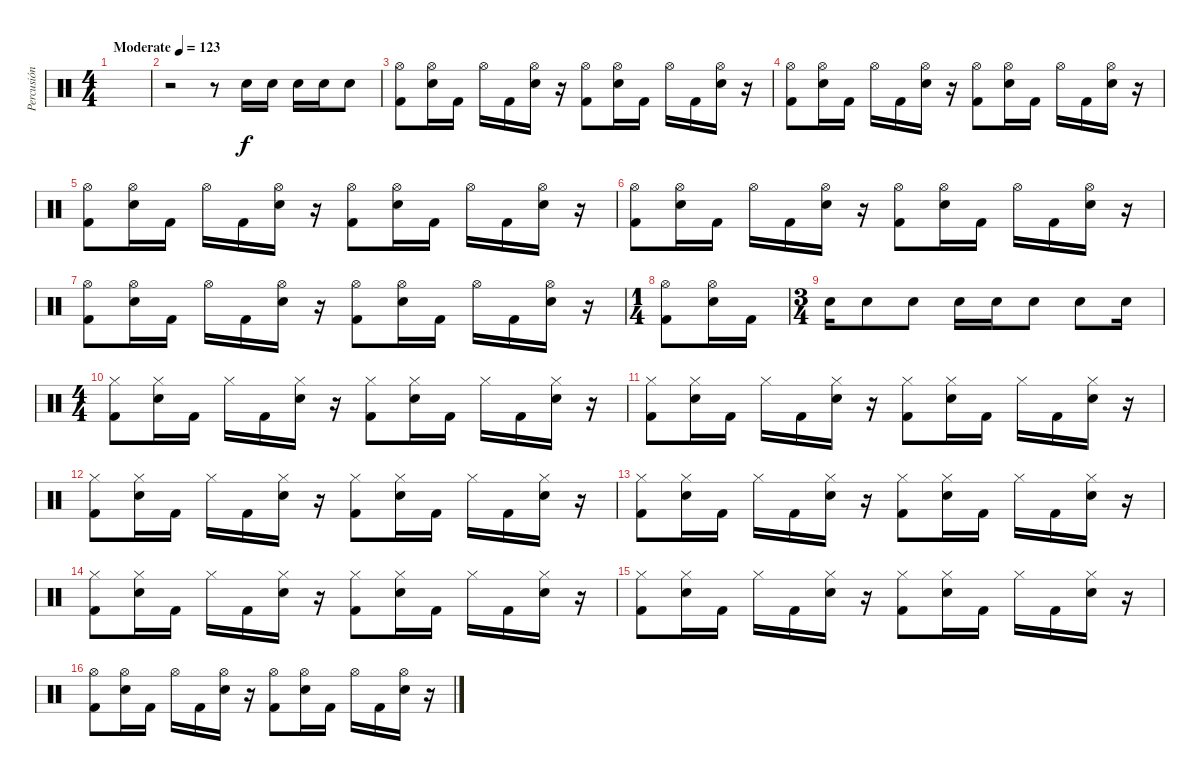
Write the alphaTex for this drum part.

\track ("Percusión" "Percusión") {instrument percussion}
\staff {score}
\articulation defaults
\ts (4 4)
\tempo (123 "Moderate")
\clef neutral
\ks c
|
r.2 r.8 "Snare (hit) 2".16 "Snare (hit) 2".16 "Snare (hit) 2".16 "Snare (hit) 2".16 "Snare (hit) 2".8 |
("Hi-Hat (open)" "Kick (hit) 2").8 ("Hi-Hat (open)" "Snare (hit) 2").16 "Kick (hit) 2".16 "Hi-Hat (open)".16 "Kick (hit) 2".16 ("Hi-Hat (open)" "Snare (hit) 2").16 r.16 ("Hi-Hat (open)" "Kick (hit) 2").8 ("Hi-Hat (open)" "Snare (hit) 2").16 "Kick (hit) 2".16 "Hi-Hat (open)".16 "Kick (hit) 2".16 ("Hi-Hat (open)" "Snare (hit) 2").16 r.16 |
("Hi-Hat (open)" "Kick (hit) 2").8 ("Hi-Hat (open)" "Snare (hit) 2").16 "Kick (hit) 2".16 "Hi-Hat (open)".16 "Kick (hit) 2".16 ("Hi-Hat (open)" "Snare (hit) 2").16 r.16 ("Hi-Hat (open)" "Kick (hit) 2").8 ("Hi-Hat (open)" "Snare (hit) 2").16 "Kick (hit) 2".16 "Hi-Hat (open)".16 "Kick (hit) 2".16 ("Hi-Hat (open)" "Snare (hit) 2").16 r.16 |
("Hi-Hat (open)" "Kick (hit) 2").8 ("Hi-Hat (open)" "Snare (hit) 2").16 "Kick (hit) 2".16 "Hi-Hat (open)".16 "Kick (hit) 2".16 ("Hi-Hat (open)" "Snare (hit) 2").16 r.16 ("Hi-Hat (open)" "Kick (hit) 2").8 ("Hi-Hat (open)" "Snare (hit) 2").16 "Kick (hit) 2".16 "Hi-Hat (open)".16 "Kick (hit) 2".16 ("Hi-Hat (open)" "Snare (hit) 2").16 r.16 |
("Hi-Hat (open)" "Kick (hit) 2").8 ("Hi-Hat (open)" "Snare (hit) 2").16 "Kick (hit) 2".16 "Hi-Hat (open)".16 "Kick (hit) 2".16 ("Hi-Hat (open)" "Snare (hit) 2").16 r.16 ("Hi-Hat (open)" "Kick (hit) 2").8 ("Hi-Hat (open)" "Snare (hit) 2").16 "Kick (hit) 2".16 "Hi-Hat (open)".16 "Kick (hit) 2".16 ("Hi-Hat (open)" "Snare (hit) 2").16 r.16 |
("Hi-Hat (open)" "Kick (hit) 2").8 ("Hi-Hat (open)" "Snare (hit) 2").16 "Kick (hit) 2".16 "Hi-Hat (open)".16 "Kick (hit) 2".16 ("Hi-Hat (open)" "Snare (hit) 2").16 r.16 ("Hi-Hat (open)" "Kick (hit) 2").8 ("Hi-Hat (open)" "Snare (hit) 2").16 "Kick (hit) 2".16 "Hi-Hat (open)".16 "Kick (hit) 2".16 ("Hi-Hat (open)" "Snare (hit) 2").16 r.16 |
\ts (1 4)
("Hi-Hat (open)" "Kick (hit) 2").8 ("Hi-Hat (open)" "Snare (hit) 2").16 "Kick (hit) 2".16 |
\ts (3 4)
"Snare (hit) 2".16 "Snare (hit) 2".8 "Snare (hit) 2".8 "Snare (hit) 2".16 "Snare (hit) 2".16 "Snare (hit) 2".8 "Snare (hit) 2".8 "Snare (hit) 2".16 |
\ts (4 4)
("Hi-Hat (closed)" "Kick (hit) 2").8 ("Hi-Hat (closed)" "Snare (hit) 2").16 "Kick (hit) 2".16 "Hi-Hat (closed)".16 "Kick (hit) 2".16 ("Hi-Hat (closed)" "Snare (hit) 2").16 r.16 ("Hi-Hat (closed)" "Kick (hit) 2").8 ("Hi-Hat (closed)" "Snare (hit) 2").16 "Kick (hit) 2".16 "Hi-Hat (closed)".16 "Kick (hit) 2".16 ("Hi-Hat (closed)" "Snare (hit) 2").16 r.16 |
("Hi-Hat (closed)" "Kick (hit) 2").8 ("Hi-Hat (closed)" "Snare (hit) 2").16 "Kick (hit) 2".16 "Hi-Hat (closed)".16 "Kick (hit) 2".16 ("Hi-Hat (closed)" "Snare (hit) 2").16 r.16 ("Hi-Hat (closed)" "Kick (hit) 2").8 ("Hi-Hat (closed)" "Snare (hit) 2").16 "Kick (hit) 2".16 "Hi-Hat (closed)".16 "Kick (hit) 2".16 ("Hi-Hat (closed)" "Snare (hit) 2").16 r.16 |
("Hi-Hat (closed)" "Kick (hit) 2").8 ("Hi-Hat (closed)" "Snare (hit) 2").16 "Kick (hit) 2".16 "Hi-Hat (closed)".16 "Kick (hit) 2".16 ("Hi-Hat (closed)" "Snare (hit) 2").16 r.16 ("Hi-Hat (closed)" "Kick (hit) 2").8 ("Hi-Hat (closed)" "Snare (hit) 2").16 "Kick (hit) 2".16 "Hi-Hat (closed)".16 "Kick (hit) 2".16 ("Hi-Hat (closed)" "Snare (hit) 2").16 r.16 |
("Hi-Hat (closed)" "Kick (hit) 2").8 ("Hi-Hat (closed)" "Snare (hit) 2").16 "Kick (hit) 2".16 "Hi-Hat (closed)".16 "Kick (hit) 2".16 ("Hi-Hat (closed)" "Snare (hit) 2").16 r.16 ("Hi-Hat (closed)" "Kick (hit) 2").8 ("Hi-Hat (closed)" "Snare (hit) 2").16 "Kick (hit) 2".16 "Hi-Hat (closed)".16 "Kick (hit) 2".16 ("Hi-Hat (closed)" "Snare (hit) 2").16 r.16 |
("Hi-Hat (closed)" "Kick (hit) 2").8 ("Hi-Hat (closed)" "Snare (hit) 2").16 "Kick (hit) 2".16 "Hi-Hat (closed)".16 "Kick (hit) 2".16 ("Hi-Hat (closed)" "Snare (hit) 2").16 r.16 ("Hi-Hat (closed)" "Kick (hit) 2").8 ("Hi-Hat (closed)" "Snare (hit) 2").16 "Kick (hit) 2".16 "Hi-Hat (closed)".16 "Kick (hit) 2".16 ("Hi-Hat (closed)" "Snare (hit) 2").16 r.16 |
("Hi-Hat (closed)" "Kick (hit) 2").8 ("Hi-Hat (closed)" "Snare (hit) 2").16 "Kick (hit) 2".16 "Hi-Hat (closed)".16 "Kick (hit) 2".16 ("Hi-Hat (closed)" "Snare (hit) 2").16 r.16 ("Hi-Hat (closed)" "Kick (hit) 2").8 ("Hi-Hat (closed)" "Snare (hit) 2").16 "Kick (hit) 2".16 "Hi-Hat (closed)".16 "Kick (hit) 2".16 ("Hi-Hat (closed)" "Snare (hit) 2").16 r.16 |
("Hi-Hat (open)" "Kick (hit) 2").8 ("Hi-Hat (open)" "Snare (hit) 2").16 "Kick (hit) 2".16 "Hi-Hat (open)".16 "Kick (hit) 2".16 ("Hi-Hat (open)" "Snare (hit) 2").16 r.16 ("Hi-Hat (open)" "Kick (hit) 2").8 ("Hi-Hat (open)" "Snare (hit) 2").16 "Kick (hit) 2".16 "Hi-Hat (open)".16 "Kick (hit) 2".16 ("Hi-Hat (open)" "Snare (hit) 2").16 r.16
